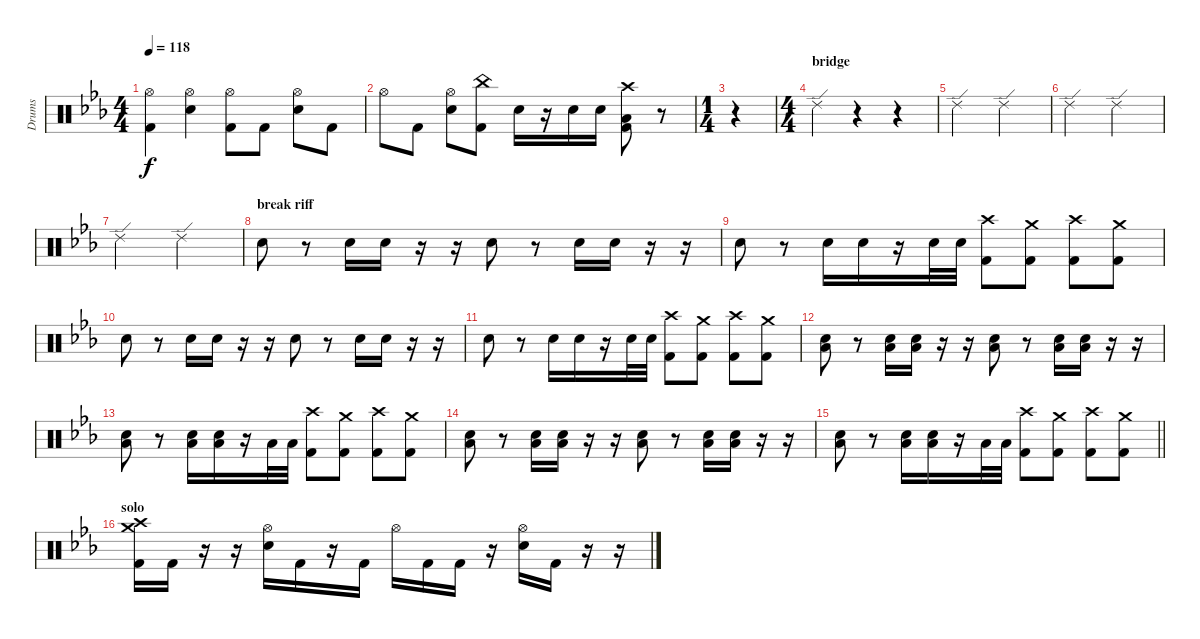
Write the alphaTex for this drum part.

\track ("Drums" "Drums") {instrument percussion}
\staff {score}
\articulation defaults
\ts (4 4)
\tempo 118
\clef neutral
\ks cminor
("Kick (hit) 2" "Hi-Hat (open)").4{dy f} ("Hi-Hat (open)" "Electric Snare (hit)").4 ("Kick (hit) 2" "Hi-Hat (open)").8 "Kick (hit) 2".8 ("Hi-Hat (open)" "Electric Snare (hit)").8 "Kick (hit) 2".8 |
"Hi-Hat (open)".8 "Kick (hit) 2".8 ("Hi-Hat (open)" "Electric Snare (hit)").8 ("Kick (hit) 2" "China (hit)").8 "Electric Snare (hit)".16 r.16 "Electric Snare (hit)".16 "Electric Snare (hit)".16 ("Kick (hit) 2" "Low Floor Tom (hit)" "Crash high (hit)").8 r.8 |
\ts (1 4)
r.4 |
\ts (4 4)
\section ("" "bridge")
"Ride (edge) 2".4 r.4 r.4 |
"Ride (edge) 2".2 "Ride (edge) 2".2 |
"Ride (edge) 2".2 "Ride (edge) 2".2 |
"Ride (edge) 2".2 "Ride (edge) 2".2 |
\section ("" "break riff")
"Electric Snare (hit)".8 r.8 "Electric Snare (hit)".16 "Electric Snare (hit)".16 r.16 r.16 "Electric Snare (hit)".8 r.8 "Electric Snare (hit)".16 "Electric Snare (hit)".16 r.16 r.16 |
"Electric Snare (hit)".8 r.8 "Electric Snare (hit)".16 "Electric Snare (hit)".16 r.16 "Electric Snare (hit)".32 "Electric Snare (hit)".32 ("Kick (hit) 2" "Crash high (hit)").8 ("Kick (hit) 2" "Crash medium (hit)").8 ("Kick (hit) 2" "Crash high (hit)").8 ("Kick (hit) 2" "Crash medium (hit)").8 |
"Electric Snare (hit)".8 r.8 "Electric Snare (hit)".16 "Electric Snare (hit)".16 r.16 r.16 "Electric Snare (hit)".8 r.8 "Electric Snare (hit)".16 "Electric Snare (hit)".16 r.16 r.16 |
"Electric Snare (hit)".8 r.8 "Electric Snare (hit)".16 "Electric Snare (hit)".16 r.16 "Electric Snare (hit)".32 "Electric Snare (hit)".32 ("Kick (hit) 2" "Crash high (hit)").8 ("Kick (hit) 2" "Crash medium (hit)").8 ("Kick (hit) 2" "Crash high (hit)").8 ("Kick (hit) 2" "Crash medium (hit)").8 |
("Electric Snare (hit)" "Low Floor Tom (hit)").8 r.8 ("Electric Snare (hit)" "Low Floor Tom (hit)").16 ("Electric Snare (hit)" "Low Floor Tom (hit)").16 r.16 r.16 ("Electric Snare (hit)" "Low Floor Tom (hit)").8 r.8 ("Electric Snare (hit)" "Low Floor Tom (hit)").16 ("Electric Snare (hit)" "Low Floor Tom (hit)").16 r.16 r.16 |
("Electric Snare (hit)" "Low Floor Tom (hit)").8 r.8 ("Electric Snare (hit)" "Low Floor Tom (hit)").16 ("Electric Snare (hit)" "Low Floor Tom (hit)").16 r.16 "Low Floor Tom (hit)".32 "Low Floor Tom (hit)".32 ("Kick (hit) 2" "Crash high (hit)").8 ("Kick (hit) 2" "Crash medium (hit)").8 ("Kick (hit) 2" "Crash high (hit)").8 ("Kick (hit) 2" "Crash medium (hit)").8 |
("Electric Snare (hit)" "Low Floor Tom (hit)").8 r.8 ("Electric Snare (hit)" "Low Floor Tom (hit)").16 ("Electric Snare (hit)" "Low Floor Tom (hit)").16 r.16 r.16 ("Electric Snare (hit)" "Low Floor Tom (hit)").8 r.8 ("Electric Snare (hit)" "Low Floor Tom (hit)").16 ("Electric Snare (hit)" "Low Floor Tom (hit)").16 r.16 r.16 |
\barLineRight lightlight
("Electric Snare (hit)" "Low Floor Tom (hit)").8 r.8 ("Electric Snare (hit)" "Low Floor Tom (hit)").16 ("Electric Snare (hit)" "Low Floor Tom (hit)").16 r.16 "Low Floor Tom (hit)".32 "Low Floor Tom (hit)".32 ("Kick (hit) 2" "Crash high (hit)").8 ("Kick (hit) 2" "Crash medium (hit)").8 ("Kick (hit) 2" "Crash high (hit)").8 ("Kick (hit) 2" "Crash medium (hit)").8 |
\section ("" "solo")
("Kick (hit) 2" "Crash medium (hit)" "Crash high (hit)").16 "Kick (hit) 2".16 r.16 r.16 ("Hi-Hat (open)" "Electric Snare (hit)").16 "Kick (hit) 2".16 r.16 "Kick (hit) 2".16 "Hi-Hat (open)".16 "Kick (hit) 2".16 "Kick (hit) 2".16 r.16 ("Hi-Hat (open)" "Electric Snare (hit)").16 "Kick (hit) 2".16 r.16 r.16
